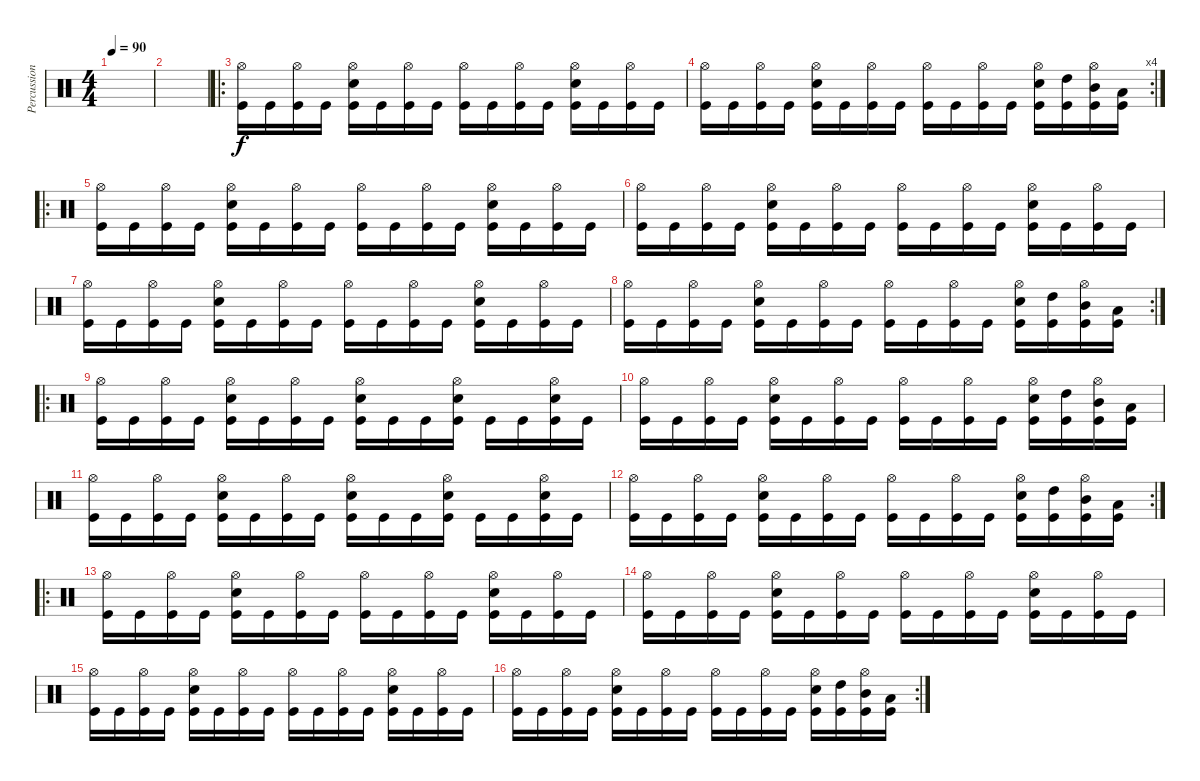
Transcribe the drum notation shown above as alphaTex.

\track ("Percussion" "Percussion") {instrument percussion}
\staff {score}
\articulation defaults
\ts (4 4)
\tempo 90
\clef neutral
\ks c
|
|
\ro
("Hi-Hat (open)" "Kick (hit)").16 "Kick (hit)".16 ("Hi-Hat (open)" "Kick (hit)").16 "Kick (hit)".16 ("Hi-Hat (open)" "Electric Snare (hit)" "Kick (hit)").16 "Kick (hit)".16 ("Hi-Hat (open)" "Kick (hit)").16 "Kick (hit)".16 ("Hi-Hat (open)" "Kick (hit)").16 "Kick (hit)".16 ("Hi-Hat (open)" "Kick (hit)").16 "Kick (hit)".16 ("Hi-Hat (open)" "Electric Snare (hit)" "Kick (hit)").16 "Kick (hit)".16 ("Hi-Hat (open)" "Kick (hit)").16 "Kick (hit)".16 |
\rc 4
("Hi-Hat (open)" "Kick (hit)").16 "Kick (hit)".16 ("Hi-Hat (open)" "Kick (hit)").16 "Kick (hit)".16 ("Hi-Hat (open)" "Electric Snare (hit)" "Kick (hit)").16 "Kick (hit)".16 ("Hi-Hat (open)" "Kick (hit)").16 "Kick (hit)".16 ("Hi-Hat (open)" "Kick (hit)").16 "Kick (hit)".16 ("Hi-Hat (open)" "Kick (hit)").16 "Kick (hit)".16 ("Hi-Hat (open)" "Electric Snare (hit)" "Kick (hit)").16 ("High Tom (hit)" "Kick (hit)").16 ("Hi-Hat (open)" "Mid Tom (hit)" "Kick (hit)").16 ("Low Tom (hit)" "Kick (hit)").16 |
\ro
("Hi-Hat (open)" "Kick (hit)").16 "Kick (hit)".16 ("Hi-Hat (open)" "Kick (hit)").16 "Kick (hit)".16 ("Hi-Hat (open)" "Electric Snare (hit)" "Kick (hit)").16 "Kick (hit)".16 ("Hi-Hat (open)" "Kick (hit)").16 "Kick (hit)".16 ("Hi-Hat (open)" "Kick (hit)").16 "Kick (hit)".16 ("Hi-Hat (open)" "Kick (hit)").16 "Kick (hit)".16 ("Hi-Hat (open)" "Electric Snare (hit)" "Kick (hit)").16 "Kick (hit)".16 ("Hi-Hat (open)" "Kick (hit)").16 "Kick (hit)".16 |
("Hi-Hat (open)" "Kick (hit)").16 "Kick (hit)".16 ("Hi-Hat (open)" "Kick (hit)").16 "Kick (hit)".16 ("Hi-Hat (open)" "Electric Snare (hit)" "Kick (hit)").16 "Kick (hit)".16 ("Hi-Hat (open)" "Kick (hit)").16 "Kick (hit)".16 ("Hi-Hat (open)" "Kick (hit)").16 "Kick (hit)".16 ("Hi-Hat (open)" "Kick (hit)").16 "Kick (hit)".16 ("Hi-Hat (open)" "Electric Snare (hit)" "Kick (hit)").16 "Kick (hit)".16 ("Hi-Hat (open)" "Kick (hit)").16 "Kick (hit)".16 |
("Hi-Hat (open)" "Kick (hit)").16 "Kick (hit)".16 ("Hi-Hat (open)" "Kick (hit)").16 "Kick (hit)".16 ("Hi-Hat (open)" "Electric Snare (hit)" "Kick (hit)").16 "Kick (hit)".16 ("Hi-Hat (open)" "Kick (hit)").16 "Kick (hit)".16 ("Hi-Hat (open)" "Kick (hit)").16 "Kick (hit)".16 ("Hi-Hat (open)" "Kick (hit)").16 "Kick (hit)".16 ("Hi-Hat (open)" "Electric Snare (hit)" "Kick (hit)").16 "Kick (hit)".16 ("Hi-Hat (open)" "Kick (hit)").16 "Kick (hit)".16 |
\rc 2
("Hi-Hat (open)" "Kick (hit)").16 "Kick (hit)".16 ("Hi-Hat (open)" "Kick (hit)").16 "Kick (hit)".16 ("Hi-Hat (open)" "Electric Snare (hit)" "Kick (hit)").16 "Kick (hit)".16 ("Hi-Hat (open)" "Kick (hit)").16 "Kick (hit)".16 ("Hi-Hat (open)" "Kick (hit)").16 "Kick (hit)".16 ("Hi-Hat (open)" "Kick (hit)").16 "Kick (hit)".16 ("Hi-Hat (open)" "Electric Snare (hit)" "Kick (hit)").16 ("High Tom (hit)" "Kick (hit)").16 ("Hi-Hat (open)" "Mid Tom (hit)" "Kick (hit)").16 ("Low Tom (hit)" "Kick (hit)").16 |
\ro
("Hi-Hat (open)" "Kick (hit)").16 "Kick (hit)".16 ("Hi-Hat (open)" "Kick (hit)").16 "Kick (hit)".16 ("Hi-Hat (open)" "Electric Snare (hit)" "Kick (hit)").16 "Kick (hit)".16 ("Hi-Hat (open)" "Kick (hit)").16 "Kick (hit)".16 ("Hi-Hat (open)" "Electric Snare (hit)" "Kick (hit)").16 "Kick (hit)".16 "Kick (hit)".16 ("Hi-Hat (open)" "Electric Snare (hit)" "Kick (hit)").16 "Kick (hit)".16 "Kick (hit)".16 ("Hi-Hat (open)" "Electric Snare (hit)" "Kick (hit)").16 "Kick (hit)".16 |
("Hi-Hat (open)" "Kick (hit)").16 "Kick (hit)".16 ("Hi-Hat (open)" "Kick (hit)").16 "Kick (hit)".16 ("Hi-Hat (open)" "Electric Snare (hit)" "Kick (hit)").16 "Kick (hit)".16 ("Hi-Hat (open)" "Kick (hit)").16 "Kick (hit)".16 ("Hi-Hat (open)" "Kick (hit)").16 "Kick (hit)".16 ("Hi-Hat (open)" "Kick (hit)").16 "Kick (hit)".16 ("Hi-Hat (open)" "Electric Snare (hit)" "Kick (hit)").16 ("High Tom (hit)" "Kick (hit)").16 ("Hi-Hat (open)" "Mid Tom (hit)" "Kick (hit)").16 ("Low Tom (hit)" "Kick (hit)").16 |
("Hi-Hat (open)" "Kick (hit)").16 "Kick (hit)".16 ("Hi-Hat (open)" "Kick (hit)").16 "Kick (hit)".16 ("Hi-Hat (open)" "Electric Snare (hit)" "Kick (hit)").16 "Kick (hit)".16 ("Hi-Hat (open)" "Kick (hit)").16 "Kick (hit)".16 ("Hi-Hat (open)" "Electric Snare (hit)" "Kick (hit)").16 "Kick (hit)".16 "Kick (hit)".16 ("Hi-Hat (open)" "Electric Snare (hit)" "Kick (hit)").16 "Kick (hit)".16 "Kick (hit)".16 ("Hi-Hat (open)" "Electric Snare (hit)" "Kick (hit)").16 "Kick (hit)".16 |
\rc 2
("Hi-Hat (open)" "Kick (hit)").16 "Kick (hit)".16 ("Hi-Hat (open)" "Kick (hit)").16 "Kick (hit)".16 ("Hi-Hat (open)" "Electric Snare (hit)" "Kick (hit)").16 "Kick (hit)".16 ("Hi-Hat (open)" "Kick (hit)").16 "Kick (hit)".16 ("Hi-Hat (open)" "Kick (hit)").16 "Kick (hit)".16 ("Hi-Hat (open)" "Kick (hit)").16 "Kick (hit)".16 ("Hi-Hat (open)" "Electric Snare (hit)" "Kick (hit)").16 ("High Tom (hit)" "Kick (hit)").16 ("Hi-Hat (open)" "Mid Tom (hit)" "Kick (hit)").16 ("Low Tom (hit)" "Kick (hit)").16 |
\ro
("Hi-Hat (open)" "Kick (hit)").16 "Kick (hit)".16 ("Hi-Hat (open)" "Kick (hit)").16 "Kick (hit)".16 ("Hi-Hat (open)" "Electric Snare (hit)" "Kick (hit)").16 "Kick (hit)".16 ("Hi-Hat (open)" "Kick (hit)").16 "Kick (hit)".16 ("Hi-Hat (open)" "Kick (hit)").16 "Kick (hit)".16 ("Hi-Hat (open)" "Kick (hit)").16 "Kick (hit)".16 ("Hi-Hat (open)" "Electric Snare (hit)" "Kick (hit)").16 "Kick (hit)".16 ("Hi-Hat (open)" "Kick (hit)").16 "Kick (hit)".16 |
("Hi-Hat (open)" "Kick (hit)").16 "Kick (hit)".16 ("Hi-Hat (open)" "Kick (hit)").16 "Kick (hit)".16 ("Hi-Hat (open)" "Electric Snare (hit)" "Kick (hit)").16 "Kick (hit)".16 ("Hi-Hat (open)" "Kick (hit)").16 "Kick (hit)".16 ("Hi-Hat (open)" "Kick (hit)").16 "Kick (hit)".16 ("Hi-Hat (open)" "Kick (hit)").16 "Kick (hit)".16 ("Hi-Hat (open)" "Electric Snare (hit)" "Kick (hit)").16 "Kick (hit)".16 ("Hi-Hat (open)" "Kick (hit)").16 "Kick (hit)".16 |
("Hi-Hat (open)" "Kick (hit)").16 "Kick (hit)".16 ("Hi-Hat (open)" "Kick (hit)").16 "Kick (hit)".16 ("Hi-Hat (open)" "Electric Snare (hit)" "Kick (hit)").16 "Kick (hit)".16 ("Hi-Hat (open)" "Kick (hit)").16 "Kick (hit)".16 ("Hi-Hat (open)" "Kick (hit)").16 "Kick (hit)".16 ("Hi-Hat (open)" "Kick (hit)").16 "Kick (hit)".16 ("Hi-Hat (open)" "Electric Snare (hit)" "Kick (hit)").16 "Kick (hit)".16 ("Hi-Hat (open)" "Kick (hit)").16 "Kick (hit)".16 |
\rc 2
("Hi-Hat (open)" "Kick (hit)").16 "Kick (hit)".16 ("Hi-Hat (open)" "Kick (hit)").16 "Kick (hit)".16 ("Hi-Hat (open)" "Electric Snare (hit)" "Kick (hit)").16 "Kick (hit)".16 ("Hi-Hat (open)" "Kick (hit)").16 "Kick (hit)".16 ("Hi-Hat (open)" "Kick (hit)").16 "Kick (hit)".16 ("Hi-Hat (open)" "Kick (hit)").16 "Kick (hit)".16 ("Hi-Hat (open)" "Electric Snare (hit)" "Kick (hit)").16 ("High Tom (hit)" "Kick (hit)").16 ("Hi-Hat (open)" "Mid Tom (hit)" "Kick (hit)").16 ("Low Tom (hit)" "Kick (hit)").16
